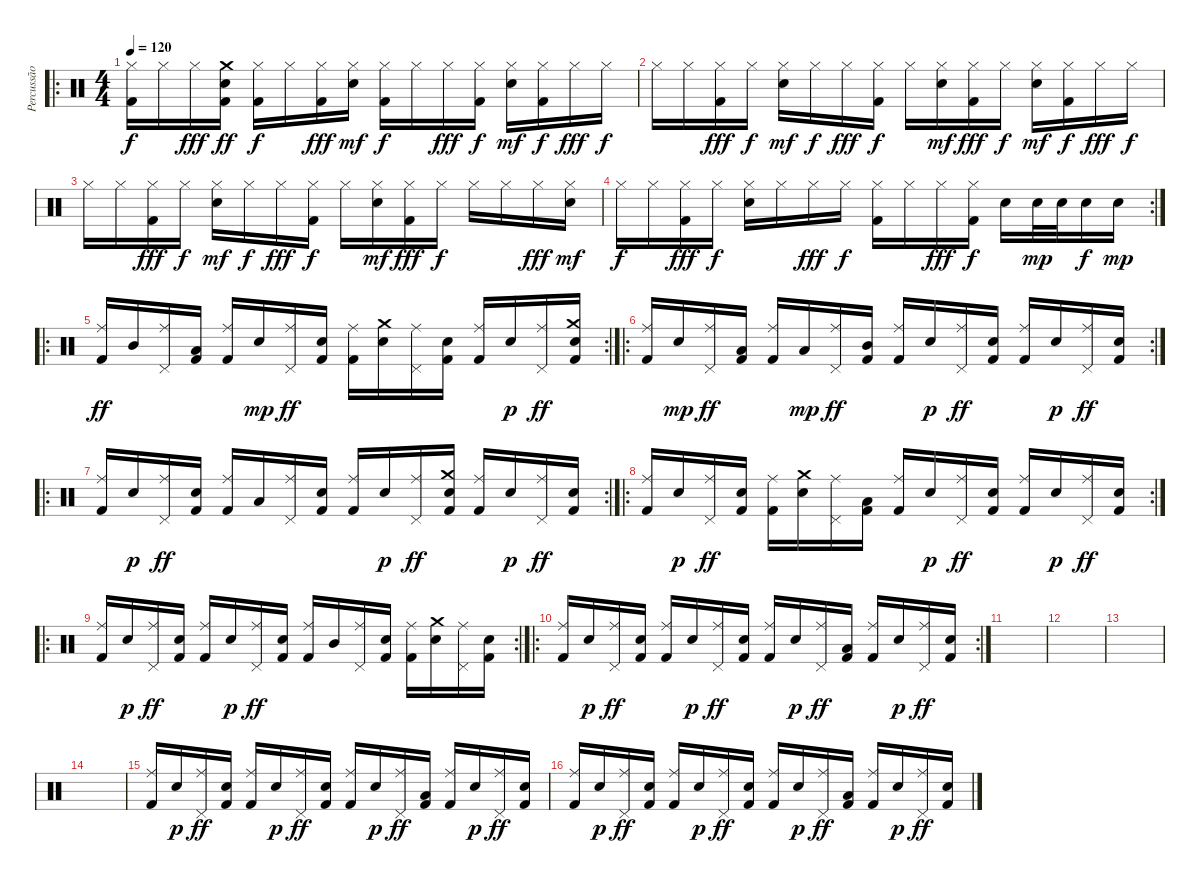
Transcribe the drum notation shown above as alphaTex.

\track ("Percussão" "Percussão") {instrument percussion}
\staff {score}
\articulation defaults
\ro
\ts (4 4)
\tempo 120
\clef neutral
\ks c
("Hi-Hat (closed)" "Kick (hit) 2").16{dy f} "Hi-Hat (closed)".16 "Hi-Hat (closed)".16{dy fff} ("Crash medium (hit)" "Snare (hit) 2" "Kick (hit) 2").16{dy ff} ("Hi-Hat (closed)" "Kick (hit) 2").16{dy f} "Hi-Hat (closed)".16 ("Hi-Hat (closed)" "Kick (hit) 2").16{dy fff} ("Hi-Hat (closed)" "Snare (hit) 2").16{dy mf} ("Hi-Hat (closed)" "Kick (hit) 2").16{dy f} "Hi-Hat (closed)".16 "Hi-Hat (closed)".16{dy fff} ("Hi-Hat (closed)" "Kick (hit) 2").16{dy f} ("Hi-Hat (closed)" "Snare (hit) 2").16{dy mf} ("Hi-Hat (closed)" "Kick (hit) 2").16{dy f} "Hi-Hat (closed)".16{dy fff} "Hi-Hat (closed)".16{dy f} |
"Hi-Hat (closed)".16 "Hi-Hat (closed)".16 ("Hi-Hat (closed)" "Kick (hit) 2").16{dy fff} "Hi-Hat (closed)".16{dy f} ("Hi-Hat (closed)" "Snare (hit) 2").16{dy mf} "Hi-Hat (closed)".16{dy f} "Hi-Hat (closed)".16{dy fff} ("Hi-Hat (closed)" "Kick (hit) 2").16{dy f} "Hi-Hat (closed)".16 ("Hi-Hat (closed)" "Snare (hit) 2").16{dy mf} ("Hi-Hat (closed)" "Kick (hit) 2").16{dy fff} "Hi-Hat (closed)".16{dy f} ("Hi-Hat (closed)" "Snare (hit) 2").16{dy mf} ("Hi-Hat (closed)" "Kick (hit) 2").16{dy f} "Hi-Hat (closed)".16{dy fff} "Hi-Hat (closed)".16{dy f} |
"Hi-Hat (closed)".16 "Hi-Hat (closed)".16 ("Hi-Hat (closed)" "Kick (hit) 2").16{dy fff} "Hi-Hat (closed)".16{dy f} ("Hi-Hat (closed)" "Snare (hit) 2").16{dy mf} "Hi-Hat (closed)".16{dy f} "Hi-Hat (closed)".16{dy fff} ("Hi-Hat (closed)" "Kick (hit) 2").16{dy f} "Hi-Hat (closed)".16 ("Hi-Hat (closed)" "Snare (hit) 2").16{dy mf} ("Hi-Hat (closed)" "Kick (hit) 2").16{dy fff} "Hi-Hat (closed)".16{dy f} "Hi-Hat (closed)".16 "Hi-Hat (closed)".16 "Hi-Hat (closed)".16{dy fff} ("Hi-Hat (closed)" "Snare (hit) 2").16{dy mf} |
\rc 2 "Hi-Hat (closed)".16{dy f} "Hi-Hat (closed)".16
("Hi-Hat (closed)" "Kick (hit) 2").16{dy fff} "Hi-Hat (closed)".16{dy f} ("Hi-Hat (closed)" "Snare (hit) 2").16 "Hi-Hat (closed)".16 "Hi-Hat (closed)".16{dy fff} "Hi-Hat (closed)".16{dy f} ("Hi-Hat (closed)" "Kick (hit) 2").16 "Hi-Hat (closed)".16 "Hi-Hat (closed)".16{dy fff} ("Hi-Hat (closed)" "Kick (hit) 2").16{dy f} "Snare (hit) 2".16 "Snare (hit) 2".32{dy mp} "Snare (hit) 2".32 "Snare (hit) 2".16{dy f} "Snare (hit) 2".16{dy mp} |
\ro
\rc 2
("Ride (middle)" "Kick (hit) 2").16{dy ff} "Mid Tom (hit)".16 ("Ride (middle)" "Pedal Hi-Hat (hit)").16 ("Low Tom (hit)" "Kick (hit) 2").16 ("Ride (middle)" "Kick (hit) 2").16 "Snare (hit) 2".16{dy mp} ("Ride (middle)" "Pedal Hi-Hat (hit)").16{dy ff} ("Snare (hit) 2" "Kick (hit) 2").16 ("Ride (middle)" "Kick (hit) 2").16 ("Crash medium (hit)" "Snare (hit) 2").16 ("Ride (middle)" "Pedal Hi-Hat (hit)").16 ("Snare (hit) 2" "Kick (hit) 2").16 ("Ride (middle)" "Kick (hit) 2").16 "Snare (hit) 2".16{dy p} ("Ride (middle)" "Pedal Hi-Hat (hit)").16{dy ff} ("Crash medium (hit)" "Snare (hit) 2" "Kick (hit) 2").16 |
\ro
\rc 2
("Ride (middle)" "Kick (hit) 2").16 "Snare (hit) 2".16{dy mp} ("Ride (middle)" "Pedal Hi-Hat (hit)").16{dy ff} ("Low Tom (hit)" "Kick (hit) 2").16 ("Ride (middle)" "Kick (hit) 2").16 "Low Floor Tom (hit)".16{dy mp} ("Ride (middle)" "Pedal Hi-Hat (hit)").16{dy ff} ("Mid Tom (hit)" "Kick (hit) 2").16 ("Ride (middle)" "Kick (hit) 2").16 "Snare (hit) 2".16{dy p} ("Ride (middle)" "Pedal Hi-Hat (hit)").16{dy ff} ("Snare (hit) 2" "Kick (hit) 2").16 ("Ride (middle)" "Kick (hit) 2").16 "Snare (hit) 2".16{dy p} ("Ride (middle)" "Pedal Hi-Hat (hit)").16{dy ff} ("Snare (hit) 2" "Kick (hit) 2").16 |
\ro
\rc 2
("Ride (middle)" "Kick (hit) 2").16 "Snare (hit) 2".16{dy p} ("Ride (middle)" "Pedal Hi-Hat (hit)").16{dy ff} ("Snare (hit) 2" "Kick (hit) 2").16 ("Ride (middle)" "Kick (hit) 2").16 "Low Floor Tom (hit)".16 ("Ride (middle)" "Pedal Hi-Hat (hit)").16 ("Snare (hit) 2" "Kick (hit) 2").16 ("Ride (middle)" "Kick (hit) 2").16 "Snare (hit) 2".16{dy p} ("Ride (middle)" "Pedal Hi-Hat (hit)").16{dy ff} ("Crash medium (hit)" "Snare (hit) 2" "Kick (hit) 2").16 ("Ride (middle)" "Kick (hit) 2").16 "Snare (hit) 2".16{dy p} ("Ride (middle)" "Pedal Hi-Hat (hit)").16{dy ff} ("Snare (hit) 2" "Kick (hit) 2").16 |
\ro
\rc 2
("Ride (middle)" "Kick (hit) 2").16 "Snare (hit) 2".16{dy p} ("Ride (middle)" "Pedal Hi-Hat (hit)").16{dy ff} ("Snare (hit) 2" "Kick (hit) 2").16 ("Ride (middle)" "Kick (hit) 2").16 ("Crash medium (hit)" "Snare (hit) 2").16 ("Ride (middle)" "Pedal Hi-Hat (hit)").16 ("Low Floor Tom (hit)" "Kick (hit) 2").16 ("Ride (middle)" "Kick (hit) 2").16 "Snare (hit) 2".16{dy p} ("Ride (middle)" "Pedal Hi-Hat (hit)").16{dy ff} ("Snare (hit) 2" "Kick (hit) 2").16 ("Ride (middle)" "Kick (hit) 2").16 "Snare (hit) 2".16{dy p} ("Ride (middle)" "Pedal Hi-Hat (hit)").16{dy ff} ("Snare (hit) 2" "Kick (hit) 2").16 |
\ro
\rc 2
("Ride (middle)" "Kick (hit) 2").16 "Snare (hit) 2".16{dy p} ("Ride (middle)" "Pedal Hi-Hat (hit)").16{dy ff} ("Snare (hit) 2" "Kick (hit) 2").16 ("Ride (middle)" "Kick (hit) 2").16 "Snare (hit) 2".16{dy p} ("Ride (middle)" "Pedal Hi-Hat (hit)").16{dy ff} ("Snare (hit) 2" "Kick (hit) 2").16 ("Ride (middle)" "Kick (hit) 2").16 "Mid Tom (hit)".16 ("Ride (middle)" "Pedal Hi-Hat (hit)").16 ("Snare (hit) 2" "Kick (hit) 2").16 ("Ride (middle)" "Kick (hit) 2").16 ("Crash medium (hit)" "Snare (hit) 2").16 ("Ride (middle)" "Pedal Hi-Hat (hit)").16 ("Snare (hit) 2" "Kick (hit) 2").16 |
\ro
\rc 2
("Ride (middle)" "Kick (hit) 2").16 "Snare (hit) 2".16{dy p} ("Ride (middle)" "Pedal Hi-Hat (hit)").16{dy ff} ("Snare (hit) 2" "Kick (hit) 2").16 ("Ride (middle)" "Kick (hit) 2").16 "Snare (hit) 2".16{dy p} ("Ride (middle)" "Pedal Hi-Hat (hit)").16{dy ff} ("Snare (hit) 2" "Kick (hit) 2").16 ("Ride (middle)" "Kick (hit) 2").16 "Snare (hit) 2".16{dy p} ("Ride (middle)" "Pedal Hi-Hat (hit)").16{dy ff} ("Low Tom (hit)" "Kick (hit) 2").16 ("Ride (middle)" "Kick (hit) 2").16 "Snare (hit) 2".16{dy p} ("Ride (middle)" "Pedal Hi-Hat (hit)").16{dy ff} ("Snare (hit) 2" "Kick (hit) 2").16 |
|
|
|
|
("Ride (middle)" "Kick (hit) 2").16 "Snare (hit) 2".16{dy p} ("Ride (middle)" "Pedal Hi-Hat (hit)").16{dy ff} ("Snare (hit) 2" "Kick (hit) 2").16 ("Ride (middle)" "Kick (hit) 2").16 "Snare (hit) 2".16{dy p} ("Ride (middle)" "Pedal Hi-Hat (hit)").16{dy ff} ("Snare (hit) 2" "Kick (hit) 2").16 ("Ride (middle)" "Kick (hit) 2").16 "Snare (hit) 2".16{dy p} ("Ride (middle)" "Pedal Hi-Hat (hit)").16{dy ff} ("Low Tom (hit)" "Kick (hit) 2").16 ("Ride (middle)" "Kick (hit) 2").16 "Snare (hit) 2".16{dy p} ("Ride (middle)" "Pedal Hi-Hat (hit)").16{dy ff} ("Snare (hit) 2" "Kick (hit) 2").16 |
("Ride (middle)" "Kick (hit) 2").16 "Snare (hit) 2".16{dy p} ("Ride (middle)" "Pedal Hi-Hat (hit)").16{dy ff} ("Snare (hit) 2" "Kick (hit) 2").16 ("Ride (middle)" "Kick (hit) 2").16 "Snare (hit) 2".16{dy p} ("Ride (middle)" "Pedal Hi-Hat (hit)").16{dy ff} ("Snare (hit) 2" "Kick (hit) 2").16 ("Ride (middle)" "Kick (hit) 2").16 "Snare (hit) 2".16{dy p} ("Ride (middle)" "Pedal Hi-Hat (hit)").16{dy ff} ("Low Tom (hit)" "Kick (hit) 2").16 ("Ride (middle)" "Kick (hit) 2").16 "Snare (hit) 2".16{dy p} ("Ride (middle)" "Pedal Hi-Hat (hit)").16{dy ff} ("Snare (hit) 2" "Kick (hit) 2").16
